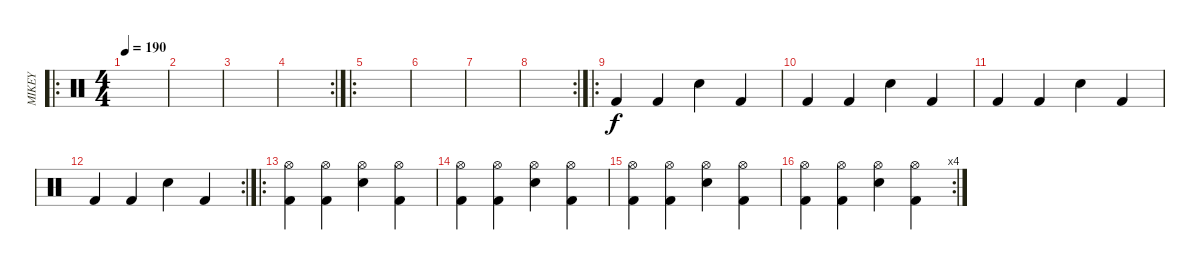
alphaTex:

\track ("MIKEY" "MIKEY") {instrument percussion}
\staff {score}
\articulation defaults
\ro
\ts (4 4)
\tempo 190
\clef neutral
\ks c
|
|
|
\rc 2
|
\ro
|
|
|
\rc 2
|
\ro "Kick (hit) 2".4 "Kick (hit) 2".4 "Snare (hit) 2".4 "Kick (hit) 2".4
|
"Kick (hit) 2".4 "Kick (hit) 2".4 "Snare (hit) 2".4 "Kick (hit) 2".4 |
"Kick (hit) 2".4 "Kick (hit) 2".4 "Snare (hit) 2".4 "Kick (hit) 2".4 |
\rc 2 "Kick (hit) 2".4 "Kick (hit) 2".4 "Snare (hit) 2".4 "Kick (hit) 2".4
|
\ro
("Hi-Hat (open)" "Kick (hit) 2").4 ("Hi-Hat (open)" "Kick (hit) 2").4 ("Hi-Hat (open)" "Snare (hit) 2").4 ("Hi-Hat (open)" "Kick (hit) 2").4 |
("Hi-Hat (open)" "Kick (hit) 2").4 ("Hi-Hat (open)" "Kick (hit) 2").4 ("Hi-Hat (open)" "Snare (hit) 2").4 ("Hi-Hat (open)" "Kick (hit) 2").4 |
("Hi-Hat (open)" "Kick (hit) 2").4 ("Hi-Hat (open)" "Kick (hit) 2").4 ("Hi-Hat (open)" "Snare (hit) 2").4 ("Hi-Hat (open)" "Kick (hit) 2").4 |
\rc 4
("Hi-Hat (open)" "Kick (hit) 2").4 ("Hi-Hat (open)" "Kick (hit) 2").4 ("Hi-Hat (open)" "Snare (hit) 2").4 ("Hi-Hat (open)" "Kick (hit) 2").4
